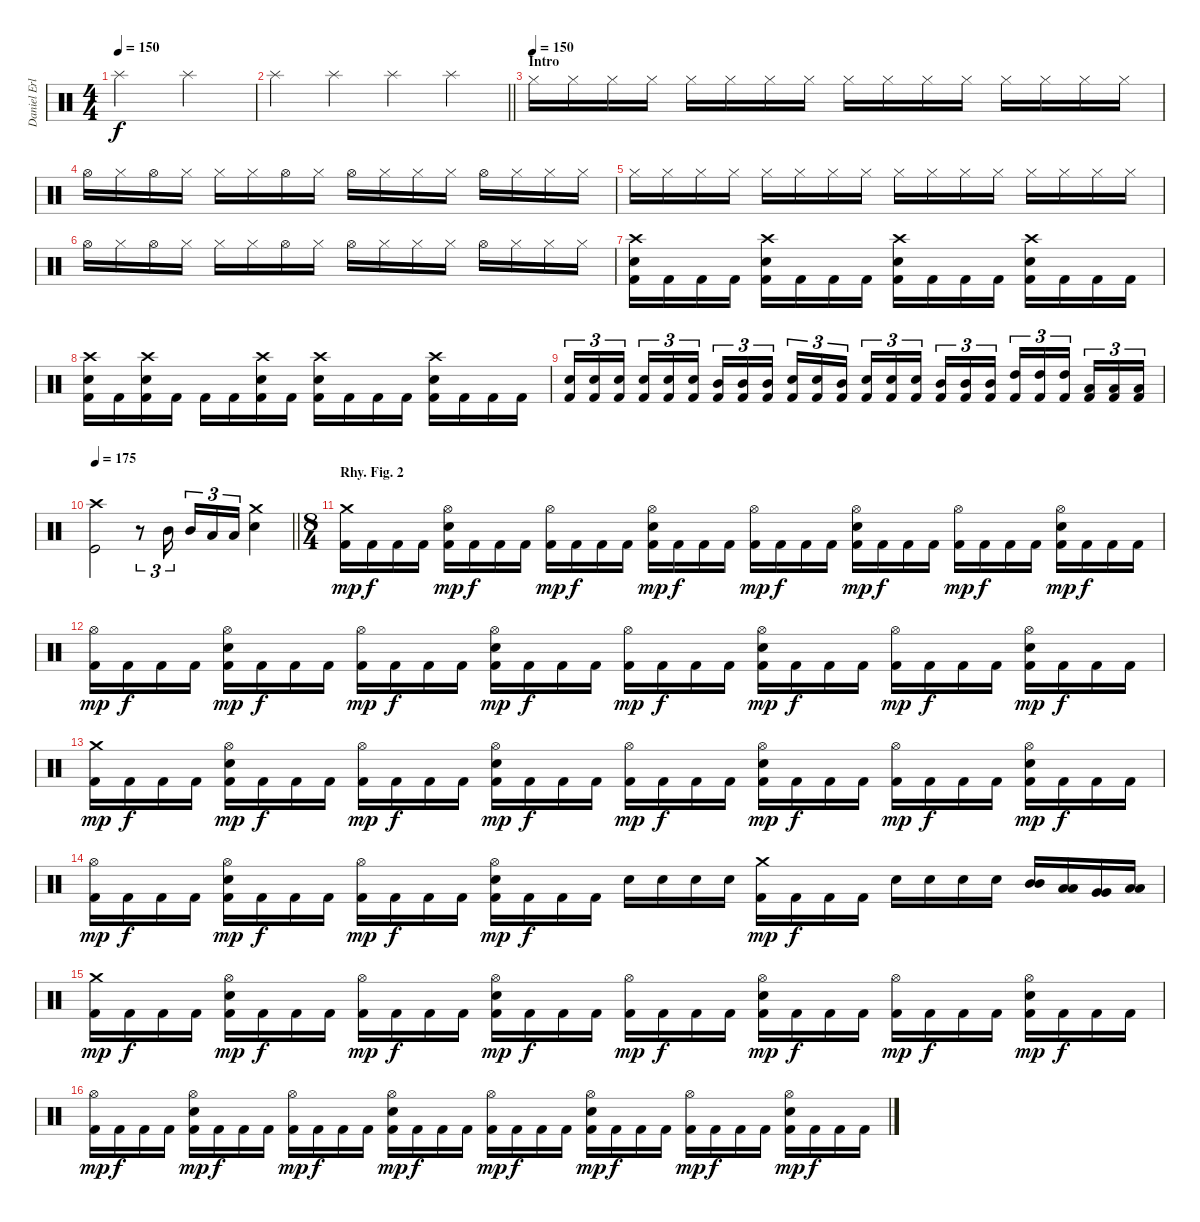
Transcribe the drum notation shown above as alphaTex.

\track ("Daniel Erlandson" "Daniel Erl") {instrument percussion}
\staff {score}
\articulation defaults
\ts (4 4)
\tempo 150
\clef neutral
\ks c "Splash (hit)".2{dy f} "Splash (hit)".2
|
\barLineRight lightlight "Splash (hit)".4 "Splash (hit)".4 "Splash (hit)".4 "Splash (hit)".4
|
\section ("" "Intro")
\tempo (150)
"Hi-Hat (closed)".16 "Hi-Hat (closed)".16 "Hi-Hat (closed)".16 "Hi-Hat (closed)".16 "Hi-Hat (closed)".16 "Hi-Hat (closed)".16 "Hi-Hat (closed)".16 "Hi-Hat (closed)".16 "Hi-Hat (closed)".16 "Hi-Hat (closed)".16 "Hi-Hat (closed)".16 "Hi-Hat (closed)".16 "Hi-Hat (closed)".16 "Hi-Hat (closed)".16 "Hi-Hat (closed)".16 "Hi-Hat (closed)".16 |
"Hi-Hat (open)".16 "Hi-Hat (closed)".16 "Hi-Hat (open)".16 "Hi-Hat (closed)".16 "Hi-Hat (closed)".16 "Hi-Hat (closed)".16 "Hi-Hat (open)".16 "Hi-Hat (closed)".16 "Hi-Hat (open)".16 "Hi-Hat (closed)".16 "Hi-Hat (closed)".16 "Hi-Hat (closed)".16 "Hi-Hat (open)".16 "Hi-Hat (closed)".16 "Hi-Hat (closed)".16 "Hi-Hat (closed)".16 |
"Hi-Hat (closed)".16 "Hi-Hat (closed)".16 "Hi-Hat (closed)".16 "Hi-Hat (closed)".16 "Hi-Hat (closed)".16 "Hi-Hat (closed)".16 "Hi-Hat (closed)".16 "Hi-Hat (closed)".16 "Hi-Hat (closed)".16 "Hi-Hat (closed)".16 "Hi-Hat (closed)".16 "Hi-Hat (closed)".16 "Hi-Hat (closed)".16 "Hi-Hat (closed)".16 "Hi-Hat (closed)".16 "Hi-Hat (closed)".16 |
"Hi-Hat (open)".16 "Hi-Hat (closed)".16 "Hi-Hat (open)".16 "Hi-Hat (closed)".16 "Hi-Hat (closed)".16 "Hi-Hat (closed)".16 "Hi-Hat (open)".16 "Hi-Hat (closed)".16 "Hi-Hat (open)".16 "Hi-Hat (closed)".16 "Hi-Hat (closed)".16 "Hi-Hat (closed)".16 "Hi-Hat (open)".16 "Hi-Hat (closed)".16 "Hi-Hat (closed)".16 "Hi-Hat (closed)".16 |
("Crash high (hit)" "Snare (hit) 2" "Kick (hit) 2").16 "Kick (hit) 2".16 "Kick (hit) 2".16 "Kick (hit) 2".16 ("Crash high (hit)" "Snare (hit) 2" "Kick (hit) 2").16 "Kick (hit) 2".16 "Kick (hit) 2".16 "Kick (hit) 2".16 ("Crash high (hit)" "Snare (hit) 2" "Kick (hit) 2").16 "Kick (hit) 2".16 "Kick (hit) 2".16 "Kick (hit) 2".16 ("Crash high (hit)" "Snare (hit) 2" "Kick (hit) 2").16 "Kick (hit) 2".16 "Kick (hit) 2".16 "Kick (hit) 2".16 |
("Crash high (hit)" "Snare (hit) 2" "Kick (hit) 2").16 "Kick (hit) 2".16 ("Crash high (hit)" "Snare (hit) 2" "Kick (hit) 2").16 "Kick (hit) 2".16 "Kick (hit) 2".16 "Kick (hit) 2".16 ("Crash high (hit)" "Snare (hit) 2" "Kick (hit) 2").16 "Kick (hit) 2".16 ("Crash high (hit)" "Snare (hit) 2" "Kick (hit) 2").16 "Kick (hit) 2".16 "Kick (hit) 2".16 "Kick (hit) 2".16 ("Crash high (hit)" "Snare (hit) 2" "Kick (hit) 2").16 "Kick (hit) 2".16 "Kick (hit) 2".16 "Kick (hit) 2".16 |
("Electric Snare (hit)" "Kick (hit) 2").16{tu (3 2)} ("Electric Snare (hit)" "Kick (hit) 2").16{tu (3 2)} ("Electric Snare (hit)" "Kick (hit) 2").16{tu (3 2) beam splitsecondary} ("Electric Snare (hit)" "Kick (hit) 2").16{tu (3 2)} ("Electric Snare (hit)" "Kick (hit) 2").16{tu (3 2)} ("Electric Snare (hit)" "Kick (hit) 2").16{tu (3 2)} ("Mid Tom (hit)" "Kick (hit) 2").16{tu (3 2)} ("Mid Tom (hit)" "Kick (hit) 2").16{tu (3 2)} ("Mid Tom (hit)" "Kick (hit) 2").16{tu (3 2) beam splitsecondary} ("Electric Snare (hit)" "Kick (hit) 2").16{tu (3 2)} ("Electric Snare (hit)" "Kick (hit) 2").16{tu (3 2)} ("Mid Tom (hit)" "Kick (hit) 2").16{tu (3 2)} ("Electric Snare (hit)" "Kick (hit) 2").16{tu (3 2)} ("Electric Snare (hit)" "Kick (hit) 2").16{tu (3 2)} ("Electric Snare (hit)" "Kick (hit) 2").16{tu (3 2) beam splitsecondary} ("Mid Tom (hit)" "Kick (hit) 2").16{tu (3 2)} ("Mid Tom (hit)" "Kick (hit) 2").16{tu (3 2)} ("Mid Tom (hit)" "Kick (hit) 2").16{tu (3 2)} ("High Tom (hit)" "Kick (hit) 2").16{tu (3 2)} ("High Tom (hit)" "Kick (hit) 2").16{tu (3 2)} ("High Tom (hit)" "Kick (hit) 2").16{tu (3 2) beam splitsecondary} ("Low Tom (hit)" "Kick (hit) 2").16{tu (3 2)} ("Low Tom (hit)" "Kick (hit) 2").16{tu (3 2)} ("Low Tom (hit)" "Kick (hit) 2").16{tu (3 2)} |
\tempo 175
\barLineRight lightlight
("Crash high (hit)" "Kick (hit)").2 r.8{tu (3 2)} "Mid Tom (hit)".16{tu (3 2) beam splitsecondary} "Mid Tom (hit)".16{tu (3 2)} "Low Tom (hit)".16{tu (3 2)} "Low Tom (hit)".16{tu (3 2)} ("Crash medium (hit)" "Electric Snare (hit)").4 |
\ts (8 4)
\section ("" "Rhy. Fig. 2")
("Crash medium (hit)" "Kick (hit) 2").16{dy mp} "Kick (hit) 2".16{dy f} "Kick (hit) 2".16 "Kick (hit) 2".16 ("Hi-Hat (open)" "Electric Snare (hit)" "Kick (hit) 2").16{dy mp} "Kick (hit) 2".16{dy f} "Kick (hit) 2".16 "Kick (hit) 2".16 ("Hi-Hat (open)" "Kick (hit) 2").16{dy mp} "Kick (hit) 2".16{dy f} "Kick (hit) 2".16 "Kick (hit) 2".16 ("Hi-Hat (open)" "Electric Snare (hit)" "Kick (hit) 2").16{dy mp} "Kick (hit) 2".16{dy f} "Kick (hit) 2".16 "Kick (hit) 2".16 ("Hi-Hat (open)" "Kick (hit) 2").16{dy mp} "Kick (hit) 2".16{dy f} "Kick (hit) 2".16 "Kick (hit) 2".16 ("Hi-Hat (open)" "Electric Snare (hit)" "Kick (hit) 2").16{dy mp} "Kick (hit) 2".16{dy f} "Kick (hit) 2".16 "Kick (hit) 2".16 ("Hi-Hat (open)" "Kick (hit) 2").16{dy mp} "Kick (hit) 2".16{dy f} "Kick (hit) 2".16 "Kick (hit) 2".16 ("Hi-Hat (open)" "Electric Snare (hit)" "Kick (hit) 2").16{dy mp} "Kick (hit) 2".16{dy f} "Kick (hit) 2".16 "Kick (hit) 2".16 |
("Hi-Hat (open)" "Kick (hit) 2").16{dy mp} "Kick (hit) 2".16{dy f} "Kick (hit) 2".16 "Kick (hit) 2".16 ("Hi-Hat (open)" "Electric Snare (hit)" "Kick (hit) 2").16{dy mp} "Kick (hit) 2".16{dy f} "Kick (hit) 2".16 "Kick (hit) 2".16 ("Hi-Hat (open)" "Kick (hit) 2").16{dy mp} "Kick (hit) 2".16{dy f} "Kick (hit) 2".16 "Kick (hit) 2".16 ("Hi-Hat (open)" "Electric Snare (hit)" "Kick (hit) 2").16{dy mp} "Kick (hit) 2".16{dy f} "Kick (hit) 2".16 "Kick (hit) 2".16 ("Hi-Hat (open)" "Kick (hit) 2").16{dy mp} "Kick (hit) 2".16{dy f} "Kick (hit) 2".16 "Kick (hit) 2".16 ("Hi-Hat (open)" "Electric Snare (hit)" "Kick (hit) 2").16{dy mp} "Kick (hit) 2".16{dy f} "Kick (hit) 2".16 "Kick (hit) 2".16 ("Hi-Hat (open)" "Kick (hit) 2").16{dy mp} "Kick (hit) 2".16{dy f} "Kick (hit) 2".16 "Kick (hit) 2".16 ("Hi-Hat (open)" "Electric Snare (hit)" "Kick (hit) 2").16{dy mp} "Kick (hit) 2".16{dy f} "Kick (hit) 2".16 "Kick (hit) 2".16 |
("Crash medium (hit)" "Kick (hit) 2").16{dy mp} "Kick (hit) 2".16{dy f} "Kick (hit) 2".16 "Kick (hit) 2".16 ("Hi-Hat (open)" "Electric Snare (hit)" "Kick (hit) 2").16{dy mp} "Kick (hit) 2".16{dy f} "Kick (hit) 2".16 "Kick (hit) 2".16 ("Hi-Hat (open)" "Kick (hit) 2").16{dy mp} "Kick (hit) 2".16{dy f} "Kick (hit) 2".16 "Kick (hit) 2".16 ("Hi-Hat (open)" "Electric Snare (hit)" "Kick (hit) 2").16{dy mp} "Kick (hit) 2".16{dy f} "Kick (hit) 2".16 "Kick (hit) 2".16 ("Hi-Hat (open)" "Kick (hit) 2").16{dy mp} "Kick (hit) 2".16{dy f} "Kick (hit) 2".16 "Kick (hit) 2".16 ("Hi-Hat (open)" "Electric Snare (hit)" "Kick (hit) 2").16{dy mp} "Kick (hit) 2".16{dy f} "Kick (hit) 2".16 "Kick (hit) 2".16 ("Hi-Hat (open)" "Kick (hit) 2").16{dy mp} "Kick (hit) 2".16{dy f} "Kick (hit) 2".16 "Kick (hit) 2".16 ("Hi-Hat (open)" "Electric Snare (hit)" "Kick (hit) 2").16{dy mp} "Kick (hit) 2".16{dy f} "Kick (hit) 2".16 "Kick (hit) 2".16 |
("Hi-Hat (open)" "Kick (hit) 2").16{dy mp} "Kick (hit) 2".16{dy f} "Kick (hit) 2".16 "Kick (hit) 2".16 ("Hi-Hat (open)" "Electric Snare (hit)" "Kick (hit) 2").16{dy mp} "Kick (hit) 2".16{dy f} "Kick (hit) 2".16 "Kick (hit) 2".16 ("Hi-Hat (open)" "Kick (hit) 2").16{dy mp} "Kick (hit) 2".16{dy f} "Kick (hit) 2".16 "Kick (hit) 2".16 ("Hi-Hat (open)" "Electric Snare (hit)" "Kick (hit) 2").16{dy mp} "Kick (hit) 2".16{dy f} "Kick (hit) 2".16 "Kick (hit) 2".16 "Electric Snare (hit)".16 "Electric Snare (hit)".16 "Electric Snare (hit)".16 "Electric Snare (hit)".16 ("Crash medium (hit)" "Kick (hit) 2").16{dy mp} "Kick (hit) 2".16{dy f} "Kick (hit) 2".16 "Kick (hit) 2".16 "Electric Snare (hit)".16 "Electric Snare (hit)".16 "Electric Snare (hit)".16 "Electric Snare (hit)".16 ("Mid Tom (hit)" "Mid Tom (hit)").16 ("Low Tom (hit)" "Low Tom (hit)").16 ("Very Low Tom (hit)" "Very Low Tom (hit)").16 ("Low Floor Tom (hit)" "Low Floor Tom (hit)").16 |
("Crash medium (hit)" "Kick (hit) 2").16{dy mp} "Kick (hit) 2".16{dy f} "Kick (hit) 2".16 "Kick (hit) 2".16 ("Hi-Hat (open)" "Electric Snare (hit)" "Kick (hit) 2").16{dy mp} "Kick (hit) 2".16{dy f} "Kick (hit) 2".16 "Kick (hit) 2".16 ("Hi-Hat (open)" "Kick (hit) 2").16{dy mp} "Kick (hit) 2".16{dy f} "Kick (hit) 2".16 "Kick (hit) 2".16 ("Hi-Hat (open)" "Electric Snare (hit)" "Kick (hit) 2").16{dy mp} "Kick (hit) 2".16{dy f} "Kick (hit) 2".16 "Kick (hit) 2".16 ("Hi-Hat (open)" "Kick (hit) 2").16{dy mp} "Kick (hit) 2".16{dy f} "Kick (hit) 2".16 "Kick (hit) 2".16 ("Hi-Hat (open)" "Electric Snare (hit)" "Kick (hit) 2").16{dy mp} "Kick (hit) 2".16{dy f} "Kick (hit) 2".16 "Kick (hit) 2".16 ("Hi-Hat (open)" "Kick (hit) 2").16{dy mp} "Kick (hit) 2".16{dy f} "Kick (hit) 2".16 "Kick (hit) 2".16 ("Hi-Hat (open)" "Electric Snare (hit)" "Kick (hit) 2").16{dy mp} "Kick (hit) 2".16{dy f} "Kick (hit) 2".16 "Kick (hit) 2".16 |
("Hi-Hat (open)" "Kick (hit) 2").16{dy mp} "Kick (hit) 2".16{dy f} "Kick (hit) 2".16 "Kick (hit) 2".16 ("Hi-Hat (open)" "Electric Snare (hit)" "Kick (hit) 2").16{dy mp} "Kick (hit) 2".16{dy f} "Kick (hit) 2".16 "Kick (hit) 2".16 ("Hi-Hat (open)" "Kick (hit) 2").16{dy mp} "Kick (hit) 2".16{dy f} "Kick (hit) 2".16 "Kick (hit) 2".16 ("Hi-Hat (open)" "Electric Snare (hit)" "Kick (hit) 2").16{dy mp} "Kick (hit) 2".16{dy f} "Kick (hit) 2".16 "Kick (hit) 2".16 ("Hi-Hat (open)" "Kick (hit) 2").16{dy mp} "Kick (hit) 2".16{dy f} "Kick (hit) 2".16 "Kick (hit) 2".16 ("Hi-Hat (open)" "Electric Snare (hit)" "Kick (hit) 2").16{dy mp} "Kick (hit) 2".16{dy f} "Kick (hit) 2".16 "Kick (hit) 2".16 ("Hi-Hat (open)" "Kick (hit) 2").16{dy mp} "Kick (hit) 2".16{dy f} "Kick (hit) 2".16 "Kick (hit) 2".16 ("Hi-Hat (open)" "Electric Snare (hit)" "Kick (hit) 2").16{dy mp} "Kick (hit) 2".16{dy f} "Kick (hit) 2".16 "Kick (hit) 2".16
